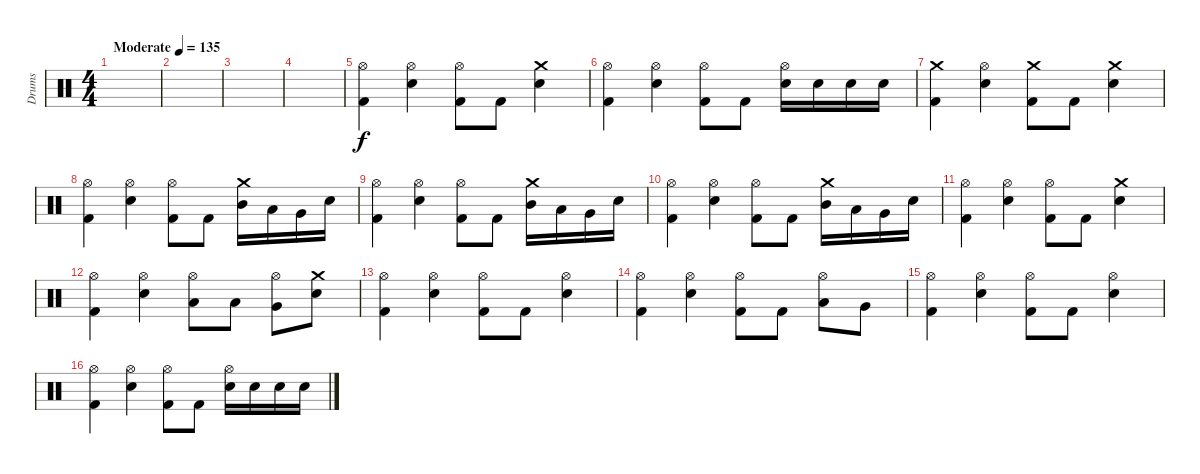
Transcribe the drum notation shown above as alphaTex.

\track ("Drums" "Drums") {instrument percussion}
\staff {score}
\articulation defaults
\ts (4 4)
\tempo (135 "Moderate")
\clef neutral
\ks c
|
|
|
|
("Hi-Hat (open)" "Kick (hit) 2").4 ("Hi-Hat (open)" "Electric Snare (hit)").4 ("Hi-Hat (open)" "Kick (hit) 2").8 "Kick (hit) 2".8 ("Crash medium (hit)" "Electric Snare (hit)").4 |
("Hi-Hat (open)" "Kick (hit) 2").4 ("Hi-Hat (open)" "Electric Snare (hit)").4 ("Hi-Hat (open)" "Kick (hit) 2").8 "Kick (hit) 2".8 ("Hi-Hat (open)" "Electric Snare (hit)").16 "Electric Snare (hit)".16 "Electric Snare (hit)".16 "Electric Snare (hit)".16 |
("Crash medium (hit)" "Kick (hit) 2").4 ("Hi-Hat (open)" "Electric Snare (hit)").4 ("Crash medium (hit)" "Kick (hit) 2").8 "Kick (hit) 2".8 ("Crash medium (hit)" "Electric Snare (hit)").4 |
("Hi-Hat (open)" "Kick (hit) 2").4 ("Hi-Hat (open)" "Electric Snare (hit)").4 ("Hi-Hat (open)" "Kick (hit) 2").8 "Kick (hit) 2".8 ("Mid Tom (hit)" "Crash medium (hit)").16 "Low Tom (hit)".16 "Very Low Tom (hit)".16 "Electric Snare (hit)".16 |
("Hi-Hat (open)" "Kick (hit) 2").4 ("Hi-Hat (open)" "Electric Snare (hit)").4 ("Hi-Hat (open)" "Kick (hit) 2").8 "Kick (hit) 2".8 ("Mid Tom (hit)" "Crash medium (hit)").16 "Low Tom (hit)".16 "Very Low Tom (hit)".16 "Electric Snare (hit)".16 |
("Hi-Hat (open)" "Kick (hit) 2").4 ("Hi-Hat (open)" "Electric Snare (hit)").4 ("Hi-Hat (open)" "Kick (hit) 2").8 "Kick (hit) 2".8 ("Mid Tom (hit)" "Crash medium (hit)").16 "Low Tom (hit)".16 "Very Low Tom (hit)".16 "Electric Snare (hit)".16 |
("Hi-Hat (open)" "Kick (hit) 2").4 ("Hi-Hat (open)" "Electric Snare (hit)").4 ("Hi-Hat (open)" "Kick (hit) 2").8 "Kick (hit) 2".8 ("Crash medium (hit)" "Electric Snare (hit)").4 |
("Hi-Hat (open)" "Kick (hit) 2").4 ("Hi-Hat (open)" "Electric Snare (hit)").4 ("Hi-Hat (open)" "Low Tom (hit)").8 "Low Tom (hit)".8 ("Hi-Hat (open)" "Very Low Tom (hit)").8 ("Crash medium (hit)" "Electric Snare (hit)").8 |
("Hi-Hat (open)" "Kick (hit) 2").4 ("Hi-Hat (open)" "Electric Snare (hit)").4 ("Hi-Hat (open)" "Kick (hit) 2").8 "Kick (hit) 2".8 ("Hi-Hat (open)" "Electric Snare (hit)").4 |
("Hi-Hat (open)" "Kick (hit) 2").4 ("Hi-Hat (open)" "Electric Snare (hit)").4 ("Hi-Hat (open)" "Kick (hit) 2").8 "Kick (hit) 2".8 ("Hi-Hat (open)" "Low Tom (hit)").8 "Very Low Tom (hit)".8 |
("Hi-Hat (open)" "Kick (hit) 2").4 ("Hi-Hat (open)" "Electric Snare (hit)").4 ("Hi-Hat (open)" "Kick (hit) 2").8 "Kick (hit) 2".8 ("Hi-Hat (open)" "Electric Snare (hit)").4 |
("Hi-Hat (open)" "Kick (hit) 2").4 ("Hi-Hat (open)" "Electric Snare (hit)").4 ("Hi-Hat (open)" "Kick (hit) 2").8 "Kick (hit) 2".8 ("Hi-Hat (open)" "Electric Snare (hit)").16 "Electric Snare (hit)".16 "Electric Snare (hit)".16 "Electric Snare (hit)".16
